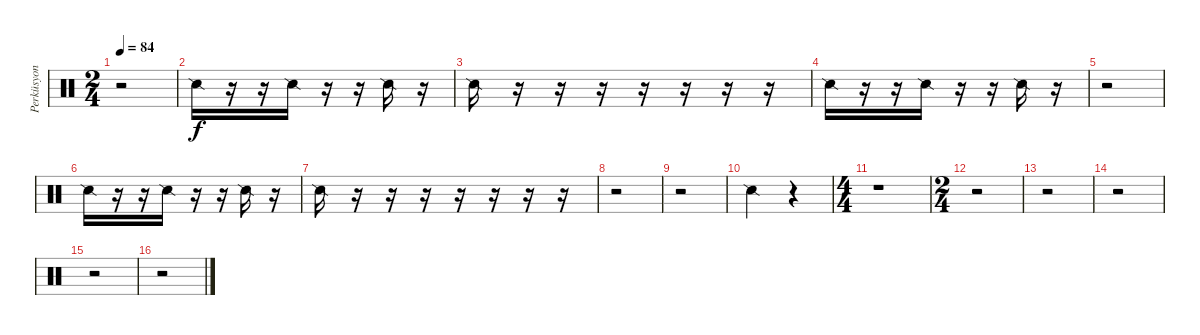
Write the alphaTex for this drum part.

\track ("Perküsyon" "Perküsyon") {instrument percussion}
\staff {score}
\articulation defaults
\ts (2 4)
\tempo 84
\clef neutral
\ks c
r.2{dy f} |
"Snare (side stick) 2".16 r.16 r.16 "Snare (side stick) 2".16 r.16 r.16 "Snare (side stick) 2".16 r.16 |
"Snare (side stick) 2".16 r.16 r.16 r.16 r.16 r.16 r.16 r.16 |
"Snare (side stick) 2".16 r.16 r.16 "Snare (side stick) 2".16 r.16 r.16 "Snare (side stick) 2".16 r.16 |
r.2 |
"Snare (side stick) 2".16 r.16 r.16 "Snare (side stick) 2".16 r.16 r.16 "Snare (side stick) 2".16 r.16 |
"Snare (side stick) 2".16 r.16 r.16 r.16 r.16 r.16 r.16 r.16 |
r.2 |
r.2 |
"Snare (side stick) 2".4 r.4 |
\ts (4 4)
r.1 |
\ts (2 4)
r.2 |
r.2 |
r.2 |
r.2 |
r.2
